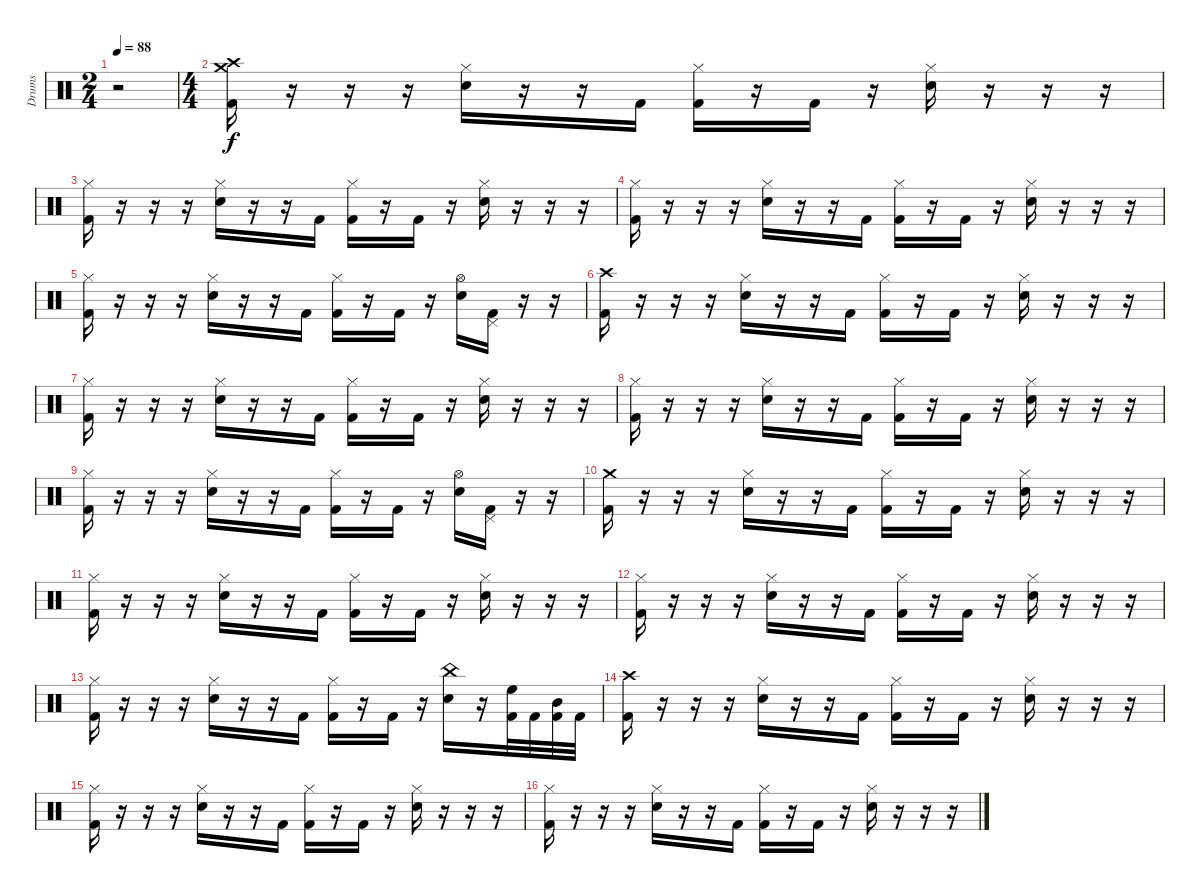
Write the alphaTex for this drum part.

\track ("Drums" "Drums") {instrument percussion}
\staff {score}
\articulation defaults
\ts (2 4)
\tempo 88
\clef neutral
\ks c
r.2{dy f} |
\ts (4 4)
("Crash high (hit)" "Crash medium (hit)" "Kick (hit) 2").16 r.16 r.16 r.16 ("Hi-Hat (closed)" "Electric Snare (hit)").16 r.16 r.16 "Kick (hit) 2".16 ("Hi-Hat (closed)" "Kick (hit) 2").16 r.16 "Kick (hit) 2".16 r.16 ("Hi-Hat (closed)" "Electric Snare (hit)").16 r.16 r.16 r.16 |
("Hi-Hat (closed)" "Kick (hit) 2").16 r.16 r.16 r.16 ("Hi-Hat (closed)" "Electric Snare (hit)").16 r.16 r.16 "Kick (hit) 2".16 ("Hi-Hat (closed)" "Kick (hit) 2").16 r.16 "Kick (hit) 2".16 r.16 ("Hi-Hat (closed)" "Electric Snare (hit)").16 r.16 r.16 r.16 |
("Hi-Hat (closed)" "Kick (hit) 2").16 r.16 r.16 r.16 ("Hi-Hat (closed)" "Electric Snare (hit)").16 r.16 r.16 "Kick (hit) 2".16 ("Hi-Hat (closed)" "Kick (hit) 2").16 r.16 "Kick (hit) 2".16 r.16 ("Hi-Hat (closed)" "Electric Snare (hit)").16 r.16 r.16 r.16 |
("Hi-Hat (closed)" "Kick (hit) 2").16 r.16 r.16 r.16 ("Hi-Hat (closed)" "Electric Snare (hit)").16 r.16 r.16 "Kick (hit) 2".16 ("Hi-Hat (closed)" "Kick (hit) 2").16 r.16 "Kick (hit) 2".16 r.16 ("Hi-Hat (open)" "Snare (hit) 2").16 ("Pedal Hi-Hat (hit)" "Kick (hit) 2").16 r.16 r.16 |
("Crash high (hit)" "Kick (hit) 2").16 r.16 r.16 r.16 ("Hi-Hat (closed)" "Electric Snare (hit)").16 r.16 r.16 "Kick (hit) 2".16 ("Hi-Hat (closed)" "Kick (hit) 2").16 r.16 "Kick (hit) 2".16 r.16 ("Hi-Hat (closed)" "Electric Snare (hit)").16 r.16 r.16 r.16 |
("Hi-Hat (closed)" "Kick (hit) 2").16 r.16 r.16 r.16 ("Hi-Hat (closed)" "Electric Snare (hit)").16 r.16 r.16 "Kick (hit) 2".16 ("Hi-Hat (closed)" "Kick (hit) 2").16 r.16 "Kick (hit) 2".16 r.16 ("Hi-Hat (closed)" "Electric Snare (hit)").16 r.16 r.16 r.16 |
("Hi-Hat (closed)" "Kick (hit) 2").16 r.16 r.16 r.16 ("Hi-Hat (closed)" "Electric Snare (hit)").16 r.16 r.16 "Kick (hit) 2".16 ("Hi-Hat (closed)" "Kick (hit) 2").16 r.16 "Kick (hit) 2".16 r.16 ("Hi-Hat (closed)" "Electric Snare (hit)").16 r.16 r.16 r.16 |
("Hi-Hat (closed)" "Kick (hit) 2").16 r.16 r.16 r.16 ("Hi-Hat (closed)" "Electric Snare (hit)").16 r.16 r.16 "Kick (hit) 2".16 ("Hi-Hat (closed)" "Kick (hit) 2").16 r.16 "Kick (hit) 2".16 r.16 ("Hi-Hat (open)" "Snare (hit) 2").16 ("Pedal Hi-Hat (hit)" "Kick (hit) 2").16 r.16 r.16 |
("Crash medium (hit)" "Kick (hit) 2").16 r.16 r.16 r.16 ("Hi-Hat (closed)" "Electric Snare (hit)").16 r.16 r.16 "Kick (hit) 2".16 ("Hi-Hat (closed)" "Kick (hit) 2").16 r.16 "Kick (hit) 2".16 r.16 ("Hi-Hat (closed)" "Electric Snare (hit)").16 r.16 r.16 r.16 |
("Hi-Hat (closed)" "Kick (hit) 2").16 r.16 r.16 r.16 ("Hi-Hat (closed)" "Electric Snare (hit)").16 r.16 r.16 "Kick (hit) 2".16 ("Hi-Hat (closed)" "Kick (hit) 2").16 r.16 "Kick (hit) 2".16 r.16 ("Hi-Hat (closed)" "Electric Snare (hit)").16 r.16 r.16 r.16 |
("Hi-Hat (closed)" "Kick (hit) 2").16 r.16 r.16 r.16 ("Hi-Hat (closed)" "Electric Snare (hit)").16 r.16 r.16 "Kick (hit) 2".16 ("Hi-Hat (closed)" "Kick (hit) 2").16 r.16 "Kick (hit) 2".16 r.16 ("Hi-Hat (closed)" "Electric Snare (hit)").16 r.16 r.16 r.16 |
("Hi-Hat (closed)" "Kick (hit) 2").16 r.16 r.16 r.16 ("Hi-Hat (closed)" "Electric Snare (hit)").16 r.16 r.16 "Kick (hit) 2".16 ("Hi-Hat (closed)" "Kick (hit) 2").16 r.16 "Kick (hit) 2".16 r.16 ("China (hit)" "Electric Snare (hit)").16 r.16 ("High Floor Tom (hit)" "Kick (hit) 2").32 "Kick (hit) 2".32 ("Mid Tom (hit)" "Kick (hit) 2").32 "Kick (hit) 2".32 |
("Crash high (hit)" "Kick (hit) 2").16 r.16 r.16 r.16 ("Hi-Hat (closed)" "Electric Snare (hit)").16 r.16 r.16 "Kick (hit) 2".16 ("Hi-Hat (closed)" "Kick (hit) 2").16 r.16 "Kick (hit) 2".16 r.16 ("Hi-Hat (closed)" "Electric Snare (hit)").16 r.16 r.16 r.16 |
("Hi-Hat (closed)" "Kick (hit) 2").16 r.16 r.16 r.16 ("Hi-Hat (closed)" "Electric Snare (hit)").16 r.16 r.16 "Kick (hit) 2".16 ("Hi-Hat (closed)" "Kick (hit) 2").16 r.16 "Kick (hit) 2".16 r.16 ("Hi-Hat (closed)" "Electric Snare (hit)").16 r.16 r.16 r.16 |
("Hi-Hat (closed)" "Kick (hit) 2").16 r.16 r.16 r.16 ("Hi-Hat (closed)" "Electric Snare (hit)").16 r.16 r.16 "Kick (hit) 2".16 ("Hi-Hat (closed)" "Kick (hit) 2").16 r.16 "Kick (hit) 2".16 r.16 ("Hi-Hat (closed)" "Electric Snare (hit)").16 r.16 r.16 r.16
